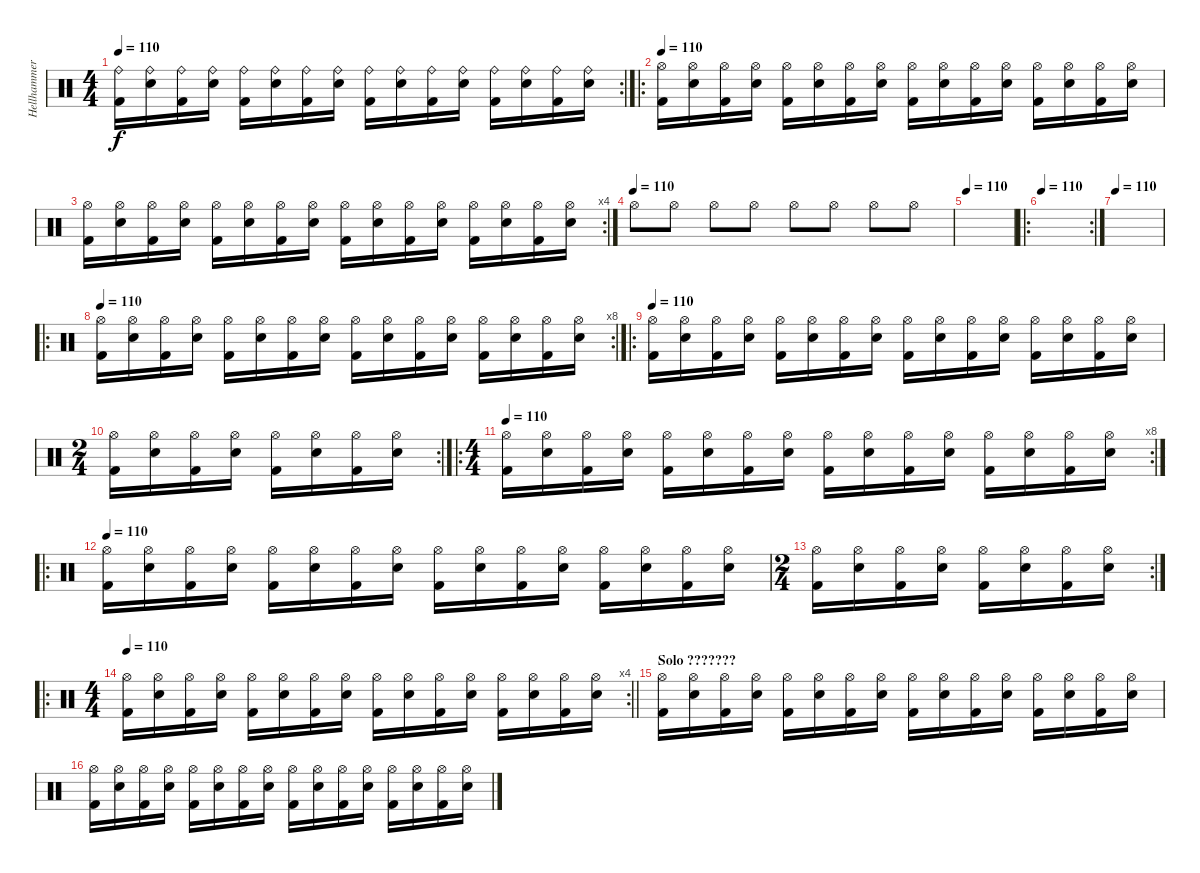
\track ("Hellhammer" "Hellhammer") {instrument percussion}
\staff {score}
\articulation defaults
\rc 2
\ts (4 4)
\tempo 110
\clef neutral
\ks c
("Ride (bell)" "Kick (hit) 2").16{dy f} ("Ride (bell)" "Snare (hit) 2").16 ("Ride (bell)" "Kick (hit) 2").16 ("Ride (bell)" "Snare (hit) 2").16 ("Ride (bell)" "Kick (hit) 2").16 ("Ride (bell)" "Snare (hit) 2").16 ("Ride (bell)" "Kick (hit) 2").16 ("Ride (bell)" "Snare (hit) 2").16 ("Ride (bell)" "Kick (hit) 2").16 ("Ride (bell)" "Snare (hit) 2").16 ("Ride (bell)" "Kick (hit) 2").16 ("Ride (bell)" "Snare (hit) 2").16 ("Ride (bell)" "Kick (hit) 2").16 ("Ride (bell)" "Snare (hit) 2").16 ("Ride (bell)" "Kick (hit) 2").16 ("Ride (bell)" "Snare (hit) 2").16 |
\ro
\tempo 110
("Hi-Hat (open)" "Kick (hit) 2").16 ("Hi-Hat (open)" "Snare (hit) 2").16 ("Hi-Hat (open)" "Kick (hit) 2").16 ("Hi-Hat (open)" "Snare (hit) 2").16 ("Hi-Hat (open)" "Kick (hit) 2").16 ("Hi-Hat (open)" "Snare (hit) 2").16 ("Hi-Hat (open)" "Kick (hit) 2").16 ("Hi-Hat (open)" "Snare (hit) 2").16 ("Hi-Hat (open)" "Kick (hit) 2").16 ("Hi-Hat (open)" "Snare (hit) 2").16 ("Hi-Hat (open)" "Kick (hit) 2").16 ("Hi-Hat (open)" "Snare (hit) 2").16 ("Hi-Hat (open)" "Kick (hit) 2").16 ("Hi-Hat (open)" "Snare (hit) 2").16 ("Hi-Hat (open)" "Kick (hit) 2").16 ("Hi-Hat (open)" "Snare (hit) 2").16 |
\rc 4
("Hi-Hat (open)" "Kick (hit) 2").16 ("Hi-Hat (open)" "Snare (hit) 2").16 ("Hi-Hat (open)" "Kick (hit) 2").16 ("Hi-Hat (open)" "Snare (hit) 2").16 ("Hi-Hat (open)" "Kick (hit) 2").16 ("Hi-Hat (open)" "Snare (hit) 2").16 ("Hi-Hat (open)" "Kick (hit) 2").16 ("Hi-Hat (open)" "Snare (hit) 2").16 ("Hi-Hat (open)" "Kick (hit) 2").16 ("Hi-Hat (open)" "Snare (hit) 2").16 ("Hi-Hat (open)" "Kick (hit) 2").16 ("Hi-Hat (open)" "Snare (hit) 2").16 ("Hi-Hat (open)" "Kick (hit) 2").16 ("Hi-Hat (open)" "Snare (hit) 2").16 ("Hi-Hat (open)" "Kick (hit) 2").16 ("Hi-Hat (open)" "Snare (hit) 2").16 |
\tempo (110)
"Hi-Hat (open)".8 "Hi-Hat (open)".8 "Hi-Hat (open)".8 "Hi-Hat (open)".8 "Hi-Hat (open)".8 "Hi-Hat (open)".8 "Hi-Hat (open)".8 "Hi-Hat (open)".8 |
\tempo 110
|
\ro
\rc 2
\tempo 110
|
\tempo 110
|
\ro
\rc 8
\tempo 110
("Hi-Hat (open)" "Kick (hit) 2").16 ("Hi-Hat (open)" "Snare (hit) 2").16 ("Hi-Hat (open)" "Kick (hit) 2").16 ("Hi-Hat (open)" "Snare (hit) 2").16 ("Hi-Hat (open)" "Kick (hit) 2").16 ("Hi-Hat (open)" "Snare (hit) 2").16 ("Hi-Hat (open)" "Kick (hit) 2").16 ("Hi-Hat (open)" "Snare (hit) 2").16 ("Hi-Hat (open)" "Kick (hit) 2").16 ("Hi-Hat (open)" "Snare (hit) 2").16 ("Hi-Hat (open)" "Kick (hit) 2").16 ("Hi-Hat (open)" "Snare (hit) 2").16 ("Hi-Hat (open)" "Kick (hit) 2").16 ("Hi-Hat (open)" "Snare (hit) 2").16 ("Hi-Hat (open)" "Kick (hit) 2").16 ("Hi-Hat (open)" "Snare (hit) 2").16 |
\ro
\tempo 110
("Hi-Hat (open)" "Kick (hit) 2").16 ("Hi-Hat (open)" "Snare (hit) 2").16 ("Hi-Hat (open)" "Kick (hit) 2").16 ("Hi-Hat (open)" "Snare (hit) 2").16 ("Hi-Hat (open)" "Kick (hit) 2").16 ("Hi-Hat (open)" "Snare (hit) 2").16 ("Hi-Hat (open)" "Kick (hit) 2").16 ("Hi-Hat (open)" "Snare (hit) 2").16 ("Hi-Hat (open)" "Kick (hit) 2").16 ("Hi-Hat (open)" "Snare (hit) 2").16 ("Hi-Hat (open)" "Kick (hit) 2").16 ("Hi-Hat (open)" "Snare (hit) 2").16 ("Hi-Hat (open)" "Kick (hit) 2").16 ("Hi-Hat (open)" "Snare (hit) 2").16 ("Hi-Hat (open)" "Kick (hit) 2").16 ("Hi-Hat (open)" "Snare (hit) 2").16 |
\rc 2
\ts (2 4)
("Hi-Hat (open)" "Kick (hit) 2").16 ("Hi-Hat (open)" "Snare (hit) 2").16 ("Hi-Hat (open)" "Kick (hit) 2").16 ("Hi-Hat (open)" "Snare (hit) 2").16 ("Hi-Hat (open)" "Kick (hit) 2").16 ("Hi-Hat (open)" "Snare (hit) 2").16 ("Hi-Hat (open)" "Kick (hit) 2").16 ("Hi-Hat (open)" "Snare (hit) 2").16 |
\ro
\rc 8
\ts (4 4)
\tempo 110
("Hi-Hat (open)" "Kick (hit) 2").16 ("Hi-Hat (open)" "Snare (hit) 2").16 ("Hi-Hat (open)" "Kick (hit) 2").16 ("Hi-Hat (open)" "Snare (hit) 2").16 ("Hi-Hat (open)" "Kick (hit) 2").16 ("Hi-Hat (open)" "Snare (hit) 2").16 ("Hi-Hat (open)" "Kick (hit) 2").16 ("Hi-Hat (open)" "Snare (hit) 2").16 ("Hi-Hat (open)" "Kick (hit) 2").16 ("Hi-Hat (open)" "Snare (hit) 2").16 ("Hi-Hat (open)" "Kick (hit) 2").16 ("Hi-Hat (open)" "Snare (hit) 2").16 ("Hi-Hat (open)" "Kick (hit) 2").16 ("Hi-Hat (open)" "Snare (hit) 2").16 ("Hi-Hat (open)" "Kick (hit) 2").16 ("Hi-Hat (open)" "Snare (hit) 2").16 |
\ro
\tempo 110
("Hi-Hat (open)" "Kick (hit) 2").16 ("Hi-Hat (open)" "Snare (hit) 2").16 ("Hi-Hat (open)" "Kick (hit) 2").16 ("Hi-Hat (open)" "Snare (hit) 2").16 ("Hi-Hat (open)" "Kick (hit) 2").16 ("Hi-Hat (open)" "Snare (hit) 2").16 ("Hi-Hat (open)" "Kick (hit) 2").16 ("Hi-Hat (open)" "Snare (hit) 2").16 ("Hi-Hat (open)" "Kick (hit) 2").16 ("Hi-Hat (open)" "Snare (hit) 2").16 ("Hi-Hat (open)" "Kick (hit) 2").16 ("Hi-Hat (open)" "Snare (hit) 2").16 ("Hi-Hat (open)" "Kick (hit) 2").16 ("Hi-Hat (open)" "Snare (hit) 2").16 ("Hi-Hat (open)" "Kick (hit) 2").16 ("Hi-Hat (open)" "Snare (hit) 2").16 |
\rc 2
\ts (2 4)
("Hi-Hat (open)" "Kick (hit) 2").16 ("Hi-Hat (open)" "Snare (hit) 2").16 ("Hi-Hat (open)" "Kick (hit) 2").16 ("Hi-Hat (open)" "Snare (hit) 2").16 ("Hi-Hat (open)" "Kick (hit) 2").16 ("Hi-Hat (open)" "Snare (hit) 2").16 ("Hi-Hat (open)" "Kick (hit) 2").16 ("Hi-Hat (open)" "Snare (hit) 2").16 |
\ro
\rc 4
\ts (4 4)
\tempo 110
\barLineRight lightlight
("Hi-Hat (open)" "Kick (hit) 2").16 ("Hi-Hat (open)" "Snare (hit) 2").16 ("Hi-Hat (open)" "Kick (hit) 2").16 ("Hi-Hat (open)" "Snare (hit) 2").16 ("Hi-Hat (open)" "Kick (hit) 2").16 ("Hi-Hat (open)" "Snare (hit) 2").16 ("Hi-Hat (open)" "Kick (hit) 2").16 ("Hi-Hat (open)" "Snare (hit) 2").16 ("Hi-Hat (open)" "Kick (hit) 2").16 ("Hi-Hat (open)" "Snare (hit) 2").16 ("Hi-Hat (open)" "Kick (hit) 2").16 ("Hi-Hat (open)" "Snare (hit) 2").16 ("Hi-Hat (open)" "Kick (hit) 2").16 ("Hi-Hat (open)" "Snare (hit) 2").16 ("Hi-Hat (open)" "Kick (hit) 2").16 ("Hi-Hat (open)" "Snare (hit) 2").16 |
\section ("" "Solo ???????")
("Hi-Hat (open)" "Kick (hit) 2").16 ("Hi-Hat (open)" "Snare (hit) 2").16 ("Hi-Hat (open)" "Kick (hit) 2").16 ("Hi-Hat (open)" "Snare (hit) 2").16 ("Hi-Hat (open)" "Kick (hit) 2").16 ("Hi-Hat (open)" "Snare (hit) 2").16 ("Hi-Hat (open)" "Kick (hit) 2").16 ("Hi-Hat (open)" "Snare (hit) 2").16 ("Hi-Hat (open)" "Kick (hit) 2").16 ("Hi-Hat (open)" "Snare (hit) 2").16 ("Hi-Hat (open)" "Kick (hit) 2").16 ("Hi-Hat (open)" "Snare (hit) 2").16 ("Hi-Hat (open)" "Kick (hit) 2").16 ("Hi-Hat (open)" "Snare (hit) 2").16 ("Hi-Hat (open)" "Kick (hit) 2").16 ("Hi-Hat (open)" "Snare (hit) 2").16 |
("Hi-Hat (open)" "Kick (hit) 2").16 ("Hi-Hat (open)" "Snare (hit) 2").16 ("Hi-Hat (open)" "Kick (hit) 2").16 ("Hi-Hat (open)" "Snare (hit) 2").16 ("Hi-Hat (open)" "Kick (hit) 2").16 ("Hi-Hat (open)" "Snare (hit) 2").16 ("Hi-Hat (open)" "Kick (hit) 2").16 ("Hi-Hat (open)" "Snare (hit) 2").16 ("Hi-Hat (open)" "Kick (hit) 2").16 ("Hi-Hat (open)" "Snare (hit) 2").16 ("Hi-Hat (open)" "Kick (hit) 2").16 ("Hi-Hat (open)" "Snare (hit) 2").16 ("Hi-Hat (open)" "Kick (hit) 2").16 ("Hi-Hat (open)" "Snare (hit) 2").16 ("Hi-Hat (open)" "Kick (hit) 2").16 ("Hi-Hat (open)" "Snare (hit) 2").16
